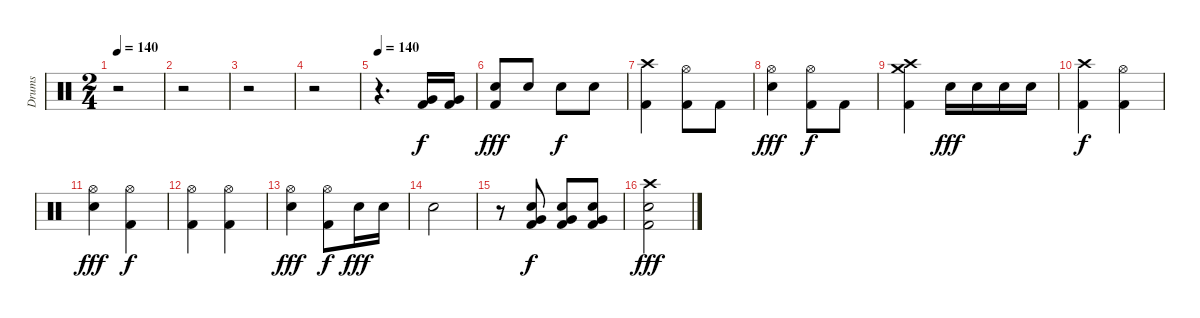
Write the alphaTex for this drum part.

\track ("Drums" "Drums") {instrument percussion}
\staff {score}
\articulation defaults
\ts (2 4)
\tempo 140
\tempo 100
\tempo 140
\clef neutral
\ks c
r.2{dy f} |
r.2 |
r.2 |
r.2 |
\tempo 140
r.4{d} ("Very Low Tom (hit)" "Kick (hit) 2").16 ("Very Low Tom (hit)" "Kick (hit) 2").16 |
("Snare (hit) 2" "Kick (hit) 2").8{dy fff} "Snare (hit) 2".8 "Snare (hit) 2".8{dy f} "Snare (hit) 2".8 |
("Crash high (hit)" "Kick (hit) 2").4 ("Hi-Hat (open)" "Kick (hit) 2").8 "Kick (hit) 2".8 |
("Hi-Hat (open)" "Snare (hit) 2").4{dy fff} ("Hi-Hat (open)" "Kick (hit) 2").8{dy f} "Kick (hit) 2".8 |
("Crash high (hit)" "Crash medium (hit)" "Kick (hit) 2").4 "Snare (hit) 2".16{dy fff} "Snare (hit) 2".16 "Snare (hit) 2".16 "Snare (hit) 2".16 |
("Crash high (hit)" "Kick (hit) 2").4{dy f} ("Hi-Hat (open)" "Kick (hit) 2").4 |
("Hi-Hat (open)" "Snare (hit) 2").4{dy fff} ("Hi-Hat (open)" "Kick (hit) 2").4{dy f} |
("Hi-Hat (open)" "Kick (hit) 2").4 ("Hi-Hat (open)" "Kick (hit) 2").4 |
("Hi-Hat (open)" "Snare (hit) 2").4{dy fff} ("Hi-Hat (open)" "Kick (hit) 2").8{dy f} "Snare (hit) 2".16{dy fff} "Snare (hit) 2".16 |
"Snare (hit) 2".2 |
r.8 ("Snare (hit) 2" "Very Low Tom (hit)" "Kick (hit) 2").8{dy f} ("Snare (hit) 2" "Very Low Tom (hit)" "Kick (hit) 2").8 ("Snare (hit) 2" "Very Low Tom (hit)" "Kick (hit) 2").8 |
("Crash high (hit)" "Snare (hit) 2" "Kick (hit) 2").2{dy fff}
